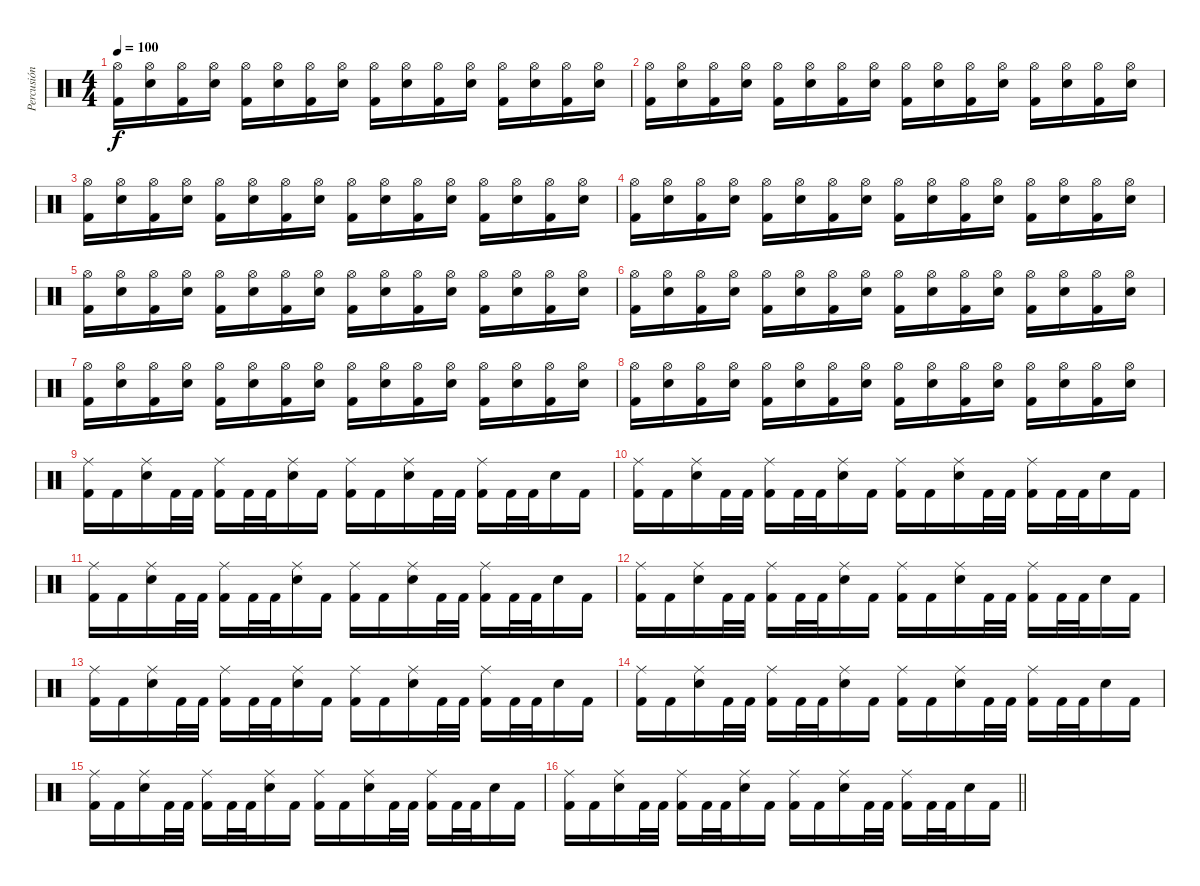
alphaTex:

\track ("Percusión" "Percusión") {instrument percussion}
\staff {score}
\articulation defaults
\ts (4 4)
\tempo 100
\clef neutral
\ks c
("Hi-Hat (open)" "Kick (hit) 2").16{dy f} ("Hi-Hat (open)" "Snare (hit) 2").16 ("Hi-Hat (open)" "Kick (hit) 2").16 ("Hi-Hat (open)" "Snare (hit) 2").16 ("Hi-Hat (open)" "Kick (hit) 2").16 ("Hi-Hat (open)" "Snare (hit) 2").16 ("Hi-Hat (open)" "Kick (hit) 2").16 ("Hi-Hat (open)" "Snare (hit) 2").16 ("Hi-Hat (open)" "Kick (hit) 2").16 ("Hi-Hat (open)" "Snare (hit) 2").16 ("Hi-Hat (open)" "Kick (hit) 2").16 ("Hi-Hat (open)" "Snare (hit) 2").16 ("Hi-Hat (open)" "Kick (hit) 2").16 ("Hi-Hat (open)" "Snare (hit) 2").16 ("Hi-Hat (open)" "Kick (hit) 2").16 ("Hi-Hat (open)" "Snare (hit) 2").16 |
("Hi-Hat (open)" "Kick (hit) 2").16 ("Hi-Hat (open)" "Snare (hit) 2").16 ("Hi-Hat (open)" "Kick (hit) 2").16 ("Hi-Hat (open)" "Snare (hit) 2").16 ("Hi-Hat (open)" "Kick (hit) 2").16 ("Hi-Hat (open)" "Snare (hit) 2").16 ("Hi-Hat (open)" "Kick (hit) 2").16 ("Hi-Hat (open)" "Snare (hit) 2").16 ("Hi-Hat (open)" "Kick (hit) 2").16 ("Hi-Hat (open)" "Snare (hit) 2").16 ("Hi-Hat (open)" "Kick (hit) 2").16 ("Hi-Hat (open)" "Snare (hit) 2").16 ("Hi-Hat (open)" "Kick (hit) 2").16 ("Hi-Hat (open)" "Snare (hit) 2").16 ("Hi-Hat (open)" "Kick (hit) 2").16 ("Hi-Hat (open)" "Snare (hit) 2").16 |
("Hi-Hat (open)" "Kick (hit) 2").16 ("Hi-Hat (open)" "Snare (hit) 2").16 ("Hi-Hat (open)" "Kick (hit) 2").16 ("Hi-Hat (open)" "Snare (hit) 2").16 ("Hi-Hat (open)" "Kick (hit) 2").16 ("Hi-Hat (open)" "Snare (hit) 2").16 ("Hi-Hat (open)" "Kick (hit) 2").16 ("Hi-Hat (open)" "Snare (hit) 2").16 ("Hi-Hat (open)" "Kick (hit) 2").16 ("Hi-Hat (open)" "Snare (hit) 2").16 ("Hi-Hat (open)" "Kick (hit) 2").16 ("Hi-Hat (open)" "Snare (hit) 2").16 ("Hi-Hat (open)" "Kick (hit) 2").16 ("Hi-Hat (open)" "Snare (hit) 2").16 ("Hi-Hat (open)" "Kick (hit) 2").16 ("Hi-Hat (open)" "Snare (hit) 2").16 |
("Hi-Hat (open)" "Kick (hit) 2").16 ("Hi-Hat (open)" "Snare (hit) 2").16 ("Hi-Hat (open)" "Kick (hit) 2").16 ("Hi-Hat (open)" "Snare (hit) 2").16 ("Hi-Hat (open)" "Kick (hit) 2").16 ("Hi-Hat (open)" "Snare (hit) 2").16 ("Hi-Hat (open)" "Kick (hit) 2").16 ("Hi-Hat (open)" "Snare (hit) 2").16 ("Hi-Hat (open)" "Kick (hit) 2").16 ("Hi-Hat (open)" "Snare (hit) 2").16 ("Hi-Hat (open)" "Kick (hit) 2").16 ("Hi-Hat (open)" "Snare (hit) 2").16 ("Hi-Hat (open)" "Kick (hit) 2").16 ("Hi-Hat (open)" "Snare (hit) 2").16 ("Hi-Hat (open)" "Kick (hit) 2").16 ("Hi-Hat (open)" "Snare (hit) 2").16 |
("Hi-Hat (open)" "Kick (hit) 2").16 ("Hi-Hat (open)" "Snare (hit) 2").16 ("Hi-Hat (open)" "Kick (hit) 2").16 ("Hi-Hat (open)" "Snare (hit) 2").16 ("Hi-Hat (open)" "Kick (hit) 2").16 ("Hi-Hat (open)" "Snare (hit) 2").16 ("Hi-Hat (open)" "Kick (hit) 2").16 ("Hi-Hat (open)" "Snare (hit) 2").16 ("Hi-Hat (open)" "Kick (hit) 2").16 ("Hi-Hat (open)" "Snare (hit) 2").16 ("Hi-Hat (open)" "Kick (hit) 2").16 ("Hi-Hat (open)" "Snare (hit) 2").16 ("Hi-Hat (open)" "Kick (hit) 2").16 ("Hi-Hat (open)" "Snare (hit) 2").16 ("Hi-Hat (open)" "Kick (hit) 2").16 ("Hi-Hat (open)" "Snare (hit) 2").16 |
("Hi-Hat (open)" "Kick (hit) 2").16 ("Hi-Hat (open)" "Snare (hit) 2").16 ("Hi-Hat (open)" "Kick (hit) 2").16 ("Hi-Hat (open)" "Snare (hit) 2").16 ("Hi-Hat (open)" "Kick (hit) 2").16 ("Hi-Hat (open)" "Snare (hit) 2").16 ("Hi-Hat (open)" "Kick (hit) 2").16 ("Hi-Hat (open)" "Snare (hit) 2").16 ("Hi-Hat (open)" "Kick (hit) 2").16 ("Hi-Hat (open)" "Snare (hit) 2").16 ("Hi-Hat (open)" "Kick (hit) 2").16 ("Hi-Hat (open)" "Snare (hit) 2").16 ("Hi-Hat (open)" "Kick (hit) 2").16 ("Hi-Hat (open)" "Snare (hit) 2").16 ("Hi-Hat (open)" "Kick (hit) 2").16 ("Hi-Hat (open)" "Snare (hit) 2").16 |
("Hi-Hat (open)" "Kick (hit) 2").16 ("Hi-Hat (open)" "Snare (hit) 2").16 ("Hi-Hat (open)" "Kick (hit) 2").16 ("Hi-Hat (open)" "Snare (hit) 2").16 ("Hi-Hat (open)" "Kick (hit) 2").16 ("Hi-Hat (open)" "Snare (hit) 2").16 ("Hi-Hat (open)" "Kick (hit) 2").16 ("Hi-Hat (open)" "Snare (hit) 2").16 ("Hi-Hat (open)" "Kick (hit) 2").16 ("Hi-Hat (open)" "Snare (hit) 2").16 ("Hi-Hat (open)" "Kick (hit) 2").16 ("Hi-Hat (open)" "Snare (hit) 2").16 ("Hi-Hat (open)" "Kick (hit) 2").16 ("Hi-Hat (open)" "Snare (hit) 2").16 ("Hi-Hat (open)" "Kick (hit) 2").16 ("Hi-Hat (open)" "Snare (hit) 2").16 |
("Hi-Hat (open)" "Kick (hit) 2").16 ("Hi-Hat (open)" "Snare (hit) 2").16 ("Hi-Hat (open)" "Kick (hit) 2").16 ("Hi-Hat (open)" "Snare (hit) 2").16 ("Hi-Hat (open)" "Kick (hit) 2").16 ("Hi-Hat (open)" "Snare (hit) 2").16 ("Hi-Hat (open)" "Kick (hit) 2").16 ("Hi-Hat (open)" "Snare (hit) 2").16 ("Hi-Hat (open)" "Kick (hit) 2").16 ("Hi-Hat (open)" "Snare (hit) 2").16 ("Hi-Hat (open)" "Kick (hit) 2").16 ("Hi-Hat (open)" "Snare (hit) 2").16 ("Hi-Hat (open)" "Kick (hit) 2").16 ("Hi-Hat (open)" "Snare (hit) 2").16 ("Hi-Hat (open)" "Kick (hit) 2").16 ("Hi-Hat (open)" "Snare (hit) 2").16 |
("Ride (middle)" "Kick (hit) 2").16 "Kick (hit) 2".16 ("Ride (middle)" "Snare (hit) 2").16 "Kick (hit) 2".32 "Kick (hit) 2".32 ("Ride (middle)" "Kick (hit) 2").16 "Kick (hit) 2".32 "Kick (hit) 2".32 ("Ride (middle)" "Snare (hit) 2").16 "Kick (hit) 2".16 ("Ride (middle)" "Kick (hit) 2").16 "Kick (hit) 2".16 ("Ride (middle)" "Snare (hit) 2").16 "Kick (hit) 2".32 "Kick (hit) 2".32 ("Ride (middle)" "Kick (hit) 2").16 "Kick (hit) 2".32 "Kick (hit) 2".32 "Snare (hit) 2".16 "Kick (hit) 2".16 |
("Ride (middle)" "Kick (hit) 2").16 "Kick (hit) 2".16 ("Ride (middle)" "Snare (hit) 2").16 "Kick (hit) 2".32 "Kick (hit) 2".32 ("Ride (middle)" "Kick (hit) 2").16 "Kick (hit) 2".32 "Kick (hit) 2".32 ("Ride (middle)" "Snare (hit) 2").16 "Kick (hit) 2".16 ("Ride (middle)" "Kick (hit) 2").16 "Kick (hit) 2".16 ("Ride (middle)" "Snare (hit) 2").16 "Kick (hit) 2".32 "Kick (hit) 2".32 ("Ride (middle)" "Kick (hit) 2").16 "Kick (hit) 2".32 "Kick (hit) 2".32 "Snare (hit) 2".16 "Kick (hit) 2".16 |
("Ride (middle)" "Kick (hit) 2").16 "Kick (hit) 2".16 ("Ride (middle)" "Snare (hit) 2").16 "Kick (hit) 2".32 "Kick (hit) 2".32 ("Ride (middle)" "Kick (hit) 2").16 "Kick (hit) 2".32 "Kick (hit) 2".32 ("Ride (middle)" "Snare (hit) 2").16 "Kick (hit) 2".16 ("Ride (middle)" "Kick (hit) 2").16 "Kick (hit) 2".16 ("Ride (middle)" "Snare (hit) 2").16 "Kick (hit) 2".32 "Kick (hit) 2".32 ("Ride (middle)" "Kick (hit) 2").16 "Kick (hit) 2".32 "Kick (hit) 2".32 "Snare (hit) 2".16 "Kick (hit) 2".16 |
("Ride (middle)" "Kick (hit) 2").16 "Kick (hit) 2".16 ("Ride (middle)" "Snare (hit) 2").16 "Kick (hit) 2".32 "Kick (hit) 2".32 ("Ride (middle)" "Kick (hit) 2").16 "Kick (hit) 2".32 "Kick (hit) 2".32 ("Ride (middle)" "Snare (hit) 2").16 "Kick (hit) 2".16 ("Ride (middle)" "Kick (hit) 2").16 "Kick (hit) 2".16 ("Ride (middle)" "Snare (hit) 2").16 "Kick (hit) 2".32 "Kick (hit) 2".32 ("Ride (middle)" "Kick (hit) 2").16 "Kick (hit) 2".32 "Kick (hit) 2".32 "Snare (hit) 2".16 "Kick (hit) 2".16 |
("Ride (middle)" "Kick (hit) 2").16 "Kick (hit) 2".16 ("Ride (middle)" "Snare (hit) 2").16 "Kick (hit) 2".32 "Kick (hit) 2".32 ("Ride (middle)" "Kick (hit) 2").16 "Kick (hit) 2".32 "Kick (hit) 2".32 ("Ride (middle)" "Snare (hit) 2").16 "Kick (hit) 2".16 ("Ride (middle)" "Kick (hit) 2").16 "Kick (hit) 2".16 ("Ride (middle)" "Snare (hit) 2").16 "Kick (hit) 2".32 "Kick (hit) 2".32 ("Ride (middle)" "Kick (hit) 2").16 "Kick (hit) 2".32 "Kick (hit) 2".32 "Snare (hit) 2".16 "Kick (hit) 2".16 |
("Ride (middle)" "Kick (hit) 2").16 "Kick (hit) 2".16 ("Ride (middle)" "Snare (hit) 2").16 "Kick (hit) 2".32 "Kick (hit) 2".32 ("Ride (middle)" "Kick (hit) 2").16 "Kick (hit) 2".32 "Kick (hit) 2".32 ("Ride (middle)" "Snare (hit) 2").16 "Kick (hit) 2".16 ("Ride (middle)" "Kick (hit) 2").16 "Kick (hit) 2".16 ("Ride (middle)" "Snare (hit) 2").16 "Kick (hit) 2".32 "Kick (hit) 2".32 ("Ride (middle)" "Kick (hit) 2").16 "Kick (hit) 2".32 "Kick (hit) 2".32 "Snare (hit) 2".16 "Kick (hit) 2".16 |
("Ride (middle)" "Kick (hit) 2").16 "Kick (hit) 2".16 ("Ride (middle)" "Snare (hit) 2").16 "Kick (hit) 2".32 "Kick (hit) 2".32 ("Ride (middle)" "Kick (hit) 2").16 "Kick (hit) 2".32 "Kick (hit) 2".32 ("Ride (middle)" "Snare (hit) 2").16 "Kick (hit) 2".16 ("Ride (middle)" "Kick (hit) 2").16 "Kick (hit) 2".16 ("Ride (middle)" "Snare (hit) 2").16 "Kick (hit) 2".32 "Kick (hit) 2".32 ("Ride (middle)" "Kick (hit) 2").16 "Kick (hit) 2".32 "Kick (hit) 2".32 "Snare (hit) 2".16 "Kick (hit) 2".16 |
\barLineRight lightlight
("Ride (middle)" "Kick (hit) 2").16 "Kick (hit) 2".16 ("Ride (middle)" "Snare (hit) 2").16 "Kick (hit) 2".32 "Kick (hit) 2".32 ("Ride (middle)" "Kick (hit) 2").16 "Kick (hit) 2".32 "Kick (hit) 2".32 ("Ride (middle)" "Snare (hit) 2").16 "Kick (hit) 2".16 ("Ride (middle)" "Kick (hit) 2").16 "Kick (hit) 2".16 ("Ride (middle)" "Snare (hit) 2").16 "Kick (hit) 2".32 "Kick (hit) 2".32 ("Ride (middle)" "Kick (hit) 2").16 "Kick (hit) 2".32 "Kick (hit) 2".32 "Snare (hit) 2".16 "Kick (hit) 2".16
